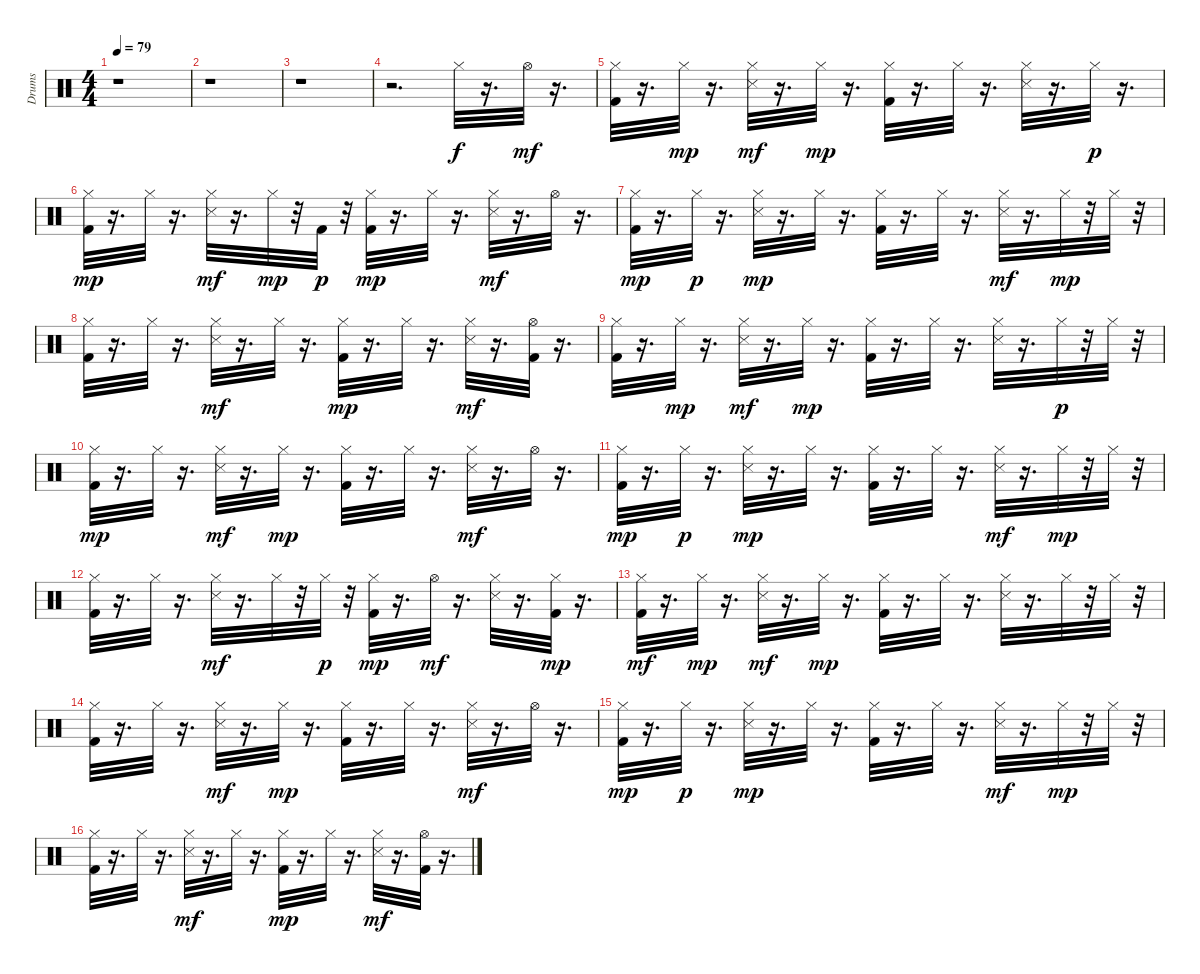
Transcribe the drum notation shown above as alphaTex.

\track ("Drums" "Drums") {instrument percussion}
\staff {score}
\articulation defaults
\ts (4 4)
\tempo 79
\clef neutral
\ks c
r.1{dy f} |
r.1 |
r.1 |
r.2{d} "Hi-Hat (closed)".32{volume 15 balance 8} r.16{d} "Hi-Hat (open)".32{dy mf} r.16{d} |
("Kick (hit) 2" "Hi-Hat (closed)").32 r.16{d} "Hi-Hat (closed)".32{dy mp} r.16{d} ("Snare (side stick) 3" "Hi-Hat (closed)").32{dy mf} r.16{d} "Hi-Hat (closed)".32{dy mp} r.16{d} ("Kick (hit) 2" "Hi-Hat (closed)").32 r.16{d} "Hi-Hat (closed)".32 r.16{d} ("Snare (side stick) 3" "Hi-Hat (closed)").32 r.16{d} "Hi-Hat (closed)".32{dy p} r.16{d} |
("Kick (hit) 2" "Hi-Hat (closed)").32{dy mp} r.16{d} "Hi-Hat (closed)".32 r.16{d} ("Snare (side stick) 3" "Hi-Hat (closed)").32{dy mf} r.16{d} "Hi-Hat (closed)".32{dy mp} r.32 "Kick (hit) 2".32{dy p} r.32 ("Kick (hit) 2" "Hi-Hat (closed)").32{dy mp} r.16{d} "Hi-Hat (closed)".32 r.16{d} ("Snare (side stick) 3" "Hi-Hat (closed)").32{dy mf} r.16{d} "Hi-Hat (open)".32 r.16{d} |
("Kick (hit) 2" "Hi-Hat (closed)").32{dy mp} r.16{d} "Hi-Hat (closed)".32{dy p} r.16{d} ("Snare (side stick) 3" "Hi-Hat (closed)").32{dy mp} r.16{d} "Hi-Hat (closed)".32 r.16{d} ("Kick (hit) 2" "Hi-Hat (closed)").32 r.16{d} "Hi-Hat (closed)".32 r.16{d} ("Snare (side stick) 3" "Hi-Hat (closed)").32{dy mf} r.16{d} "Hi-Hat (closed)".32{dy mp} r.32 "Hi-Hat (closed)".32 r.32 |
("Kick (hit) 2" "Hi-Hat (closed)").32 r.16{d} "Hi-Hat (closed)".32 r.16{d} ("Snare (side stick) 3" "Hi-Hat (closed)").32{dy mf} r.16{d} "Hi-Hat (closed)".32 r.16{d} ("Kick (hit) 2" "Hi-Hat (closed)").32{dy mp} r.16{d} "Hi-Hat (closed)".32 r.16{d} ("Snare (side stick) 3" "Hi-Hat (closed)").32{dy mf} r.16{d} ("Kick (hit) 2" "Hi-Hat (open)").32 r.16{d} |
("Kick (hit) 2" "Hi-Hat (closed)").32 r.16{d} "Hi-Hat (closed)".32{dy mp} r.16{d} ("Snare (side stick) 3" "Hi-Hat (closed)").32{dy mf} r.16{d} "Hi-Hat (closed)".32{dy mp} r.16{d} ("Kick (hit) 2" "Hi-Hat (closed)").32 r.16{d} "Hi-Hat (closed)".32 r.16{d} ("Snare (side stick) 3" "Hi-Hat (closed)").32 r.16{d} "Hi-Hat (closed)".32{dy p} r.32 "Hi-Hat (closed)".32 r.32 |
("Kick (hit) 2" "Hi-Hat (closed)").32{dy mp} r.16{d} "Hi-Hat (closed)".32 r.16{d} ("Snare (side stick) 3" "Hi-Hat (closed)").32{dy mf} r.16{d} "Hi-Hat (closed)".32{dy mp} r.16{d} ("Kick (hit) 2" "Hi-Hat (closed)").32 r.16{d} "Hi-Hat (closed)".32 r.16{d} ("Snare (side stick) 3" "Hi-Hat (closed)").32{dy mf} r.16{d} "Hi-Hat (open)".32 r.16{d} |
("Kick (hit) 2" "Hi-Hat (closed)").32{dy mp} r.16{d} "Hi-Hat (closed)".32{dy p} r.16{d} ("Snare (side stick) 3" "Hi-Hat (closed)").32{dy mp} r.16{d} "Hi-Hat (closed)".32 r.16{d} ("Kick (hit) 2" "Hi-Hat (closed)").32 r.16{d} "Hi-Hat (closed)".32 r.16{d} ("Snare (side stick) 3" "Hi-Hat (closed)").32{dy mf} r.16{d} "Hi-Hat (closed)".32{dy mp} r.32 "Hi-Hat (closed)".32 r.32 |
("Kick (hit) 2" "Hi-Hat (closed)").32 r.16{d} "Hi-Hat (closed)".32 r.16{d} ("Snare (side stick) 3" "Hi-Hat (closed)").32{dy mf} r.16{d} "Hi-Hat (closed)".32 r.32 "Hi-Hat (closed)".32{dy p} r.32 ("Kick (hit) 2" "Hi-Hat (closed)").32{dy mp} r.16{d} "Hi-Hat (open)".32{dy mf} r.16{d} ("Snare (side stick) 3" "Hi-Hat (closed)").32 r.16{d} ("Kick (hit) 2" "Hi-Hat (closed)").32{dy mp} r.16{d} |
("Kick (hit) 2" "Hi-Hat (closed)").32{dy mf} r.16{d} "Hi-Hat (closed)".32{dy mp} r.16{d} ("Snare (side stick) 3" "Hi-Hat (closed)").32{dy mf} r.16{d} "Hi-Hat (closed)".32{dy mp} r.16{d} ("Kick (hit) 2" "Hi-Hat (closed)").32 r.16{d} "Hi-Hat (closed)".32 r.16{d} ("Snare (side stick) 3" "Hi-Hat (closed)").32 r.16{d} "Hi-Hat (closed)".32 r.32 "Hi-Hat (closed)".32 r.32 |
("Kick (hit) 2" "Hi-Hat (closed)").32 r.16{d} "Hi-Hat (closed)".32 r.16{d} ("Snare (side stick) 3" "Hi-Hat (closed)").32{dy mf} r.16{d} "Hi-Hat (closed)".32{dy mp} r.16{d} ("Kick (hit) 2" "Hi-Hat (closed)").32 r.16{d} "Hi-Hat (closed)".32 r.16{d} ("Snare (side stick) 3" "Hi-Hat (closed)").32{dy mf} r.16{d} "Hi-Hat (open)".32 r.16{d} |
("Kick (hit) 2" "Hi-Hat (closed)").32{dy mp} r.16{d} "Hi-Hat (closed)".32{dy p} r.16{d} ("Snare (side stick) 3" "Hi-Hat (closed)").32{dy mp} r.16{d} "Hi-Hat (closed)".32 r.16{d} ("Kick (hit) 2" "Hi-Hat (closed)").32 r.16{d} "Hi-Hat (closed)".32 r.16{d} ("Snare (side stick) 3" "Hi-Hat (closed)").32{dy mf} r.16{d} "Hi-Hat (closed)".32{dy mp} r.32 "Hi-Hat (closed)".32 r.32 |
("Kick (hit) 2" "Hi-Hat (closed)").32 r.16{d} "Hi-Hat (closed)".32 r.16{d} ("Snare (side stick) 3" "Hi-Hat (closed)").32{dy mf} r.16{d} "Hi-Hat (closed)".32 r.16{d} ("Kick (hit) 2" "Hi-Hat (closed)").32{dy mp} r.16{d} "Hi-Hat (closed)".32 r.16{d} ("Snare (side stick) 3" "Hi-Hat (closed)").32{dy mf} r.16{d} ("Kick (hit) 2" "Hi-Hat (open)").32 r.16{d}
